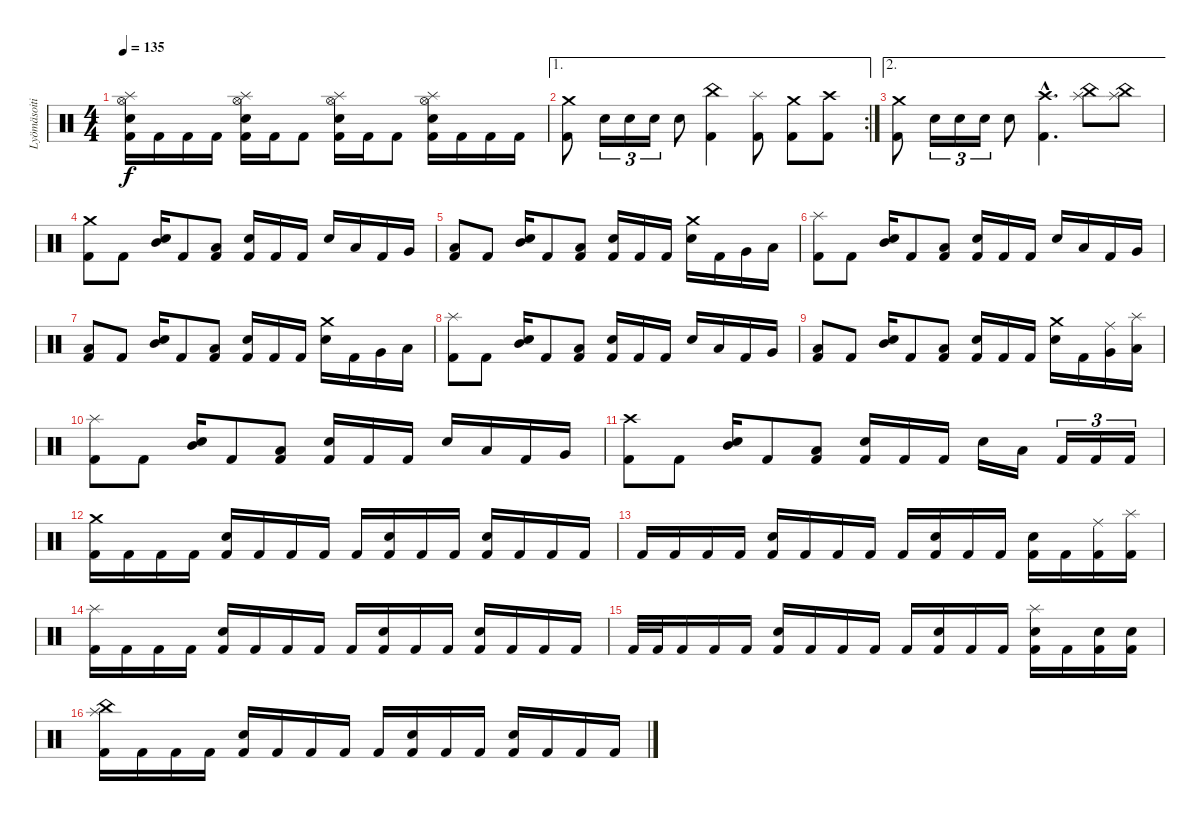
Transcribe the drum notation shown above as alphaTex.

\track ("Lyömäsoitin" "Lyömäsoiti") {instrument percussion}
\staff {score}
\articulation defaults
\ts (4 4)
\tempo 135
\clef neutral
\ks c
("Splash (hit)" "Hi-Hat (open)" "Electric Snare (hit)" "Kick (hit) 2").16{dy f} "Kick (hit) 2".16 "Kick (hit) 2".16 "Kick (hit) 2".16 ("Splash (hit)" "Hi-Hat (open)" "Electric Snare (hit)" "Kick (hit) 2").16 "Kick (hit) 2".16 "Kick (hit) 2".8 ("Splash (hit)" "Hi-Hat (open)" "Electric Snare (hit)" "Kick (hit) 2").16 "Kick (hit) 2".16 "Kick (hit) 2".8 ("Splash (hit)" "Hi-Hat (open)" "Electric Snare (hit)" "Kick (hit) 2").16 "Kick (hit) 2".16 "Kick (hit) 2".16 "Kick (hit) 2".16 |
\ae 1
\rc 2
("Crash medium (hit)" "Kick (hit) 2").8 "Electric Snare (hit)".16{tu (3 2)} "Electric Snare (hit)".16{tu (3 2)} "Electric Snare (hit)".16{tu (3 2)} "Electric Snare (hit)".8 ("China (hit)" "Kick (hit) 2").4 ("Splash (hit)" "Kick (hit) 2").8 ("Crash medium (hit)" "Kick (hit) 2").8 ("Crash high (hit)" "Kick (hit) 2").8 |
\ae 2
("Crash medium (hit)" "Kick (hit) 2").8 "Electric Snare (hit)".16{tu (3 2)} "Electric Snare (hit)".16{tu (3 2)} "Electric Snare (hit)".16{tu (3 2)} "Electric Snare (hit)".8 ("Crash high (hit)"{hac} "Kick (hit) 2"{hac}).4{d} ("Splash (hit)" "China (hit)").8 ("Splash (hit)" "China (hit)").8 |
("Crash medium (hit)" "Kick (hit) 2").8 "Kick (hit) 2".8 ("Mid Tom (hit)" "Electric Snare (hit)").16 "Kick (hit) 2".8 ("Low Tom (hit)" "Kick (hit) 2").8 ("Electric Snare (hit)" "Kick (hit) 2").16 "Kick (hit) 2".16 "Kick (hit) 2".16 "Electric Snare (hit)".16 "Low Tom (hit)".16 "Kick (hit) 2".16 "Very Low Tom (hit)".16 |
("Low Floor Tom (hit)" "Kick (hit) 2").8 "Kick (hit) 2".8 ("Mid Tom (hit)" "Electric Snare (hit)").16 "Kick (hit) 2".8 ("Low Tom (hit)" "Kick (hit) 2").8 ("Electric Snare (hit)" "Kick (hit) 2").16 "Kick (hit) 2".16 "Kick (hit) 2".16 ("Crash medium (hit)" "Electric Snare (hit)").16 "Kick (hit) 2".16 "Very Low Tom (hit)".16 "Low Floor Tom (hit)".16 |
("Splash (hit)" "Kick (hit) 2").8 "Kick (hit) 2".8 ("Mid Tom (hit)" "Electric Snare (hit)").16 "Kick (hit) 2".8 ("Low Tom (hit)" "Kick (hit) 2").8 ("Electric Snare (hit)" "Kick (hit) 2").16 "Kick (hit) 2".16 "Kick (hit) 2".16 "Electric Snare (hit)".16 "Low Tom (hit)".16 "Kick (hit) 2".16 "Very Low Tom (hit)".16 |
("Low Floor Tom (hit)" "Kick (hit) 2").8 "Kick (hit) 2".8 ("Mid Tom (hit)" "Electric Snare (hit)").16 "Kick (hit) 2".8 ("Low Tom (hit)" "Kick (hit) 2").8 ("Electric Snare (hit)" "Kick (hit) 2").16 "Kick (hit) 2".16 "Kick (hit) 2".16 ("Crash medium (hit)" "Electric Snare (hit)").16 "Kick (hit) 2".16 "Very Low Tom (hit)".16 "Low Floor Tom (hit)".16 |
("Splash (hit)" "Kick (hit) 2").8 "Kick (hit) 2".8 ("Mid Tom (hit)" "Electric Snare (hit)").16 "Kick (hit) 2".8 ("Low Tom (hit)" "Kick (hit) 2").8 ("Electric Snare (hit)" "Kick (hit) 2").16 "Kick (hit) 2".16 "Kick (hit) 2".16 "Electric Snare (hit)".16 "Low Tom (hit)".16 "Kick (hit) 2".16 "Very Low Tom (hit)".16 |
("Low Floor Tom (hit)" "Kick (hit) 2").8 "Kick (hit) 2".8 ("Mid Tom (hit)" "Electric Snare (hit)").16 "Kick (hit) 2".8 ("Low Tom (hit)" "Kick (hit) 2").8 ("Electric Snare (hit)" "Kick (hit) 2").16 "Kick (hit) 2".16 "Kick (hit) 2".16 ("Crash medium (hit)" "Electric Snare (hit)").16 "Kick (hit) 2".16 ("Ride (middle)" "Very Low Tom (hit)").16 ("Splash (hit)" "Low Floor Tom (hit)").16 |
("Splash (hit)" "Kick (hit) 2").8 "Kick (hit) 2".8 ("Mid Tom (hit)" "Electric Snare (hit)").16 "Kick (hit) 2".8 ("Low Tom (hit)" "Kick (hit) 2").8 ("Electric Snare (hit)" "Kick (hit) 2").16 "Kick (hit) 2".16 "Kick (hit) 2".16 "Electric Snare (hit)".16 "Low Tom (hit)".16 "Kick (hit) 2".16 "Very Low Tom (hit)".16 |
("Crash high (hit)" "Kick (hit) 2").8 "Kick (hit) 2".8 ("Mid Tom (hit)" "Electric Snare (hit)").16 "Kick (hit) 2".8 ("Low Tom (hit)" "Kick (hit) 2").8 ("Electric Snare (hit)" "Kick (hit) 2").16 "Kick (hit) 2".16 "Kick (hit) 2".16 "Electric Snare (hit)".16 "Low Tom (hit)".16 "Kick (hit) 2".16{tu (3 2)} "Kick (hit) 2".16{tu (3 2)} "Kick (hit) 2".16{tu (3 2)} |
("Crash medium (hit)" "Kick (hit) 2").16 "Kick (hit) 2".16 "Kick (hit) 2".16 "Kick (hit) 2".16 ("Electric Snare (hit)" "Kick (hit) 2").16 "Kick (hit) 2".16 "Kick (hit) 2".16 "Kick (hit) 2".16 "Kick (hit) 2".16 ("Electric Snare (hit)" "Kick (hit) 2").16 "Kick (hit) 2".16 "Kick (hit) 2".16 ("Electric Snare (hit)" "Kick (hit) 2").16 "Kick (hit) 2".16 "Kick (hit) 2".16 "Kick (hit) 2".16 |
"Kick (hit) 2".16 "Kick (hit) 2".16 "Kick (hit) 2".16 "Kick (hit) 2".16 ("Electric Snare (hit)" "Kick (hit) 2").16 "Kick (hit) 2".16 "Kick (hit) 2".16 "Kick (hit) 2".16 "Kick (hit) 2".16 ("Electric Snare (hit)" "Kick (hit) 2").16 "Kick (hit) 2".16 "Kick (hit) 2".16 ("Electric Snare (hit)" "Kick (hit) 2").16 "Kick (hit) 2".16 ("Ride (middle)" "Kick (hit) 2").16 ("Splash (hit)" "Kick (hit) 2").16 |
("Splash (hit)" "Kick (hit) 2").16 "Kick (hit) 2".16 "Kick (hit) 2".16 "Kick (hit) 2".16 ("Electric Snare (hit)" "Kick (hit) 2").16 "Kick (hit) 2".16 "Kick (hit) 2".16 "Kick (hit) 2".16 "Kick (hit) 2".16 ("Electric Snare (hit)" "Kick (hit) 2").16 "Kick (hit) 2".16 "Kick (hit) 2".16 ("Electric Snare (hit)" "Kick (hit) 2").16 "Kick (hit) 2".16 "Kick (hit) 2".16 "Kick (hit) 2".16 |
"Kick (hit) 2".32 "Kick (hit) 2".32 "Kick (hit) 2".16 "Kick (hit) 2".16 "Kick (hit) 2".16 ("Electric Snare (hit)" "Kick (hit) 2").16 "Kick (hit) 2".16 "Kick (hit) 2".16 "Kick (hit) 2".16 "Kick (hit) 2".16 ("Electric Snare (hit)" "Kick (hit) 2").16 "Kick (hit) 2".16 "Kick (hit) 2".16 ("Splash (hit)" "Electric Snare (hit)" "Kick (hit) 2").16 "Kick (hit) 2".16 ("Electric Snare (hit)" "Kick (hit) 2").16 ("Electric Snare (hit)" "Kick (hit) 2").16 |
("Splash (hit)" "China (hit)" "Kick (hit) 2").16 "Kick (hit) 2".16 "Kick (hit) 2".16 "Kick (hit) 2".16 ("Electric Snare (hit)" "Kick (hit) 2").16 "Kick (hit) 2".16 "Kick (hit) 2".16 "Kick (hit) 2".16 "Kick (hit) 2".16 ("Electric Snare (hit)" "Kick (hit) 2").16 "Kick (hit) 2".16 "Kick (hit) 2".16 ("Electric Snare (hit)" "Kick (hit) 2").16 "Kick (hit) 2".16 "Kick (hit) 2".16 "Kick (hit) 2".16
